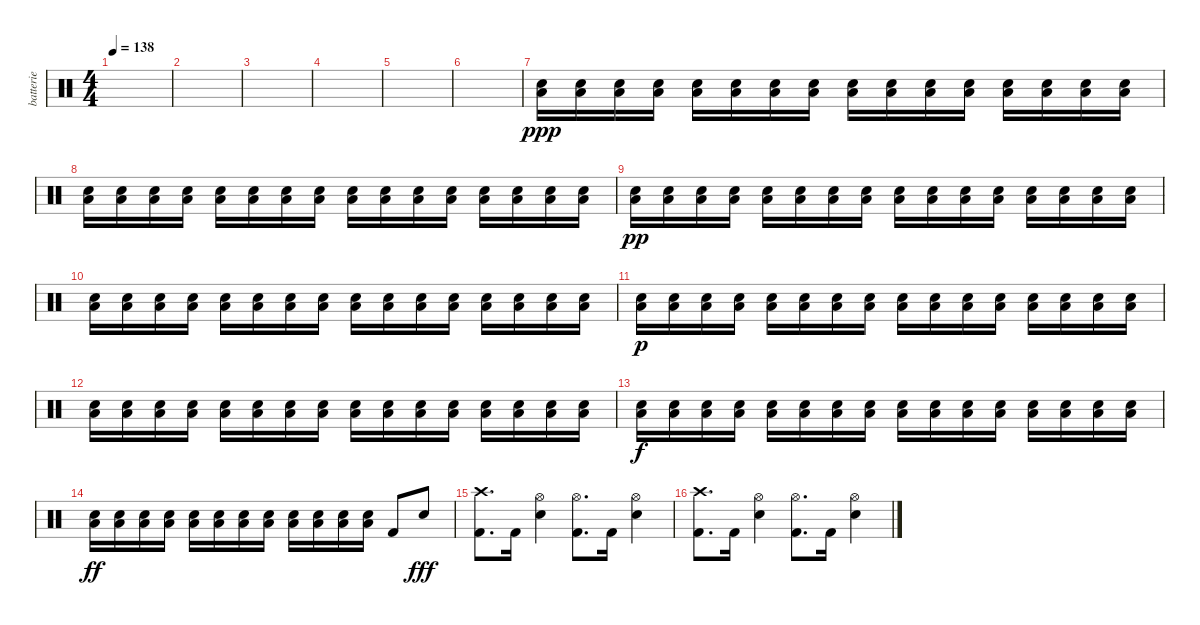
\track ("batterie" "batterie") {instrument percussion}
\staff {score}
\articulation defaults
\ts (4 4)
\tempo 138
\clef neutral
\ks c
|
|
|
|
|
|
("Low Floor Tom (hit)" "Electric Snare (hit)").16{dy ppp} ("Low Floor Tom (hit)" "Electric Snare (hit)").16 ("Low Floor Tom (hit)" "Electric Snare (hit)").16 ("Low Floor Tom (hit)" "Electric Snare (hit)").16 ("Low Floor Tom (hit)" "Electric Snare (hit)").16 ("Low Floor Tom (hit)" "Electric Snare (hit)").16 ("Low Floor Tom (hit)" "Electric Snare (hit)").16 ("Low Floor Tom (hit)" "Electric Snare (hit)").16 ("Low Floor Tom (hit)" "Electric Snare (hit)").16 ("Low Floor Tom (hit)" "Electric Snare (hit)").16 ("Low Floor Tom (hit)" "Electric Snare (hit)").16 ("Low Floor Tom (hit)" "Electric Snare (hit)").16 ("Low Floor Tom (hit)" "Electric Snare (hit)").16 ("Low Floor Tom (hit)" "Electric Snare (hit)").16 ("Low Floor Tom (hit)" "Electric Snare (hit)").16 ("Low Floor Tom (hit)" "Electric Snare (hit)").16 |
("Low Floor Tom (hit)" "Electric Snare (hit)").16 ("Low Floor Tom (hit)" "Electric Snare (hit)").16 ("Low Floor Tom (hit)" "Electric Snare (hit)").16 ("Low Floor Tom (hit)" "Electric Snare (hit)").16 ("Low Floor Tom (hit)" "Electric Snare (hit)").16 ("Low Floor Tom (hit)" "Electric Snare (hit)").16 ("Low Floor Tom (hit)" "Electric Snare (hit)").16 ("Low Floor Tom (hit)" "Electric Snare (hit)").16 ("Low Floor Tom (hit)" "Electric Snare (hit)").16 ("Low Floor Tom (hit)" "Electric Snare (hit)").16 ("Low Floor Tom (hit)" "Electric Snare (hit)").16 ("Low Floor Tom (hit)" "Electric Snare (hit)").16 ("Low Floor Tom (hit)" "Electric Snare (hit)").16 ("Low Floor Tom (hit)" "Electric Snare (hit)").16 ("Low Floor Tom (hit)" "Electric Snare (hit)").16 ("Low Floor Tom (hit)" "Electric Snare (hit)").16 |
("Low Floor Tom (hit)" "Electric Snare (hit)").16{dy pp} ("Low Floor Tom (hit)" "Electric Snare (hit)").16 ("Low Floor Tom (hit)" "Electric Snare (hit)").16 ("Low Floor Tom (hit)" "Electric Snare (hit)").16 ("Low Floor Tom (hit)" "Electric Snare (hit)").16 ("Low Floor Tom (hit)" "Electric Snare (hit)").16 ("Low Floor Tom (hit)" "Electric Snare (hit)").16 ("Low Floor Tom (hit)" "Electric Snare (hit)").16 ("Low Floor Tom (hit)" "Electric Snare (hit)").16 ("Low Floor Tom (hit)" "Electric Snare (hit)").16 ("Low Floor Tom (hit)" "Electric Snare (hit)").16 ("Low Floor Tom (hit)" "Electric Snare (hit)").16 ("Low Floor Tom (hit)" "Electric Snare (hit)").16 ("Low Floor Tom (hit)" "Electric Snare (hit)").16 ("Low Floor Tom (hit)" "Electric Snare (hit)").16 ("Low Floor Tom (hit)" "Electric Snare (hit)").16 |
("Low Floor Tom (hit)" "Electric Snare (hit)").16 ("Low Floor Tom (hit)" "Electric Snare (hit)").16 ("Low Floor Tom (hit)" "Electric Snare (hit)").16 ("Low Floor Tom (hit)" "Electric Snare (hit)").16 ("Low Floor Tom (hit)" "Electric Snare (hit)").16 ("Low Floor Tom (hit)" "Electric Snare (hit)").16 ("Low Floor Tom (hit)" "Electric Snare (hit)").16 ("Low Floor Tom (hit)" "Electric Snare (hit)").16 ("Low Floor Tom (hit)" "Electric Snare (hit)").16 ("Low Floor Tom (hit)" "Electric Snare (hit)").16 ("Low Floor Tom (hit)" "Electric Snare (hit)").16 ("Low Floor Tom (hit)" "Electric Snare (hit)").16 ("Low Floor Tom (hit)" "Electric Snare (hit)").16 ("Low Floor Tom (hit)" "Electric Snare (hit)").16 ("Low Floor Tom (hit)" "Electric Snare (hit)").16 ("Low Floor Tom (hit)" "Electric Snare (hit)").16 |
("Low Floor Tom (hit)" "Electric Snare (hit)").16{dy p} ("Low Floor Tom (hit)" "Electric Snare (hit)").16 ("Low Floor Tom (hit)" "Electric Snare (hit)").16 ("Low Floor Tom (hit)" "Electric Snare (hit)").16 ("Low Floor Tom (hit)" "Electric Snare (hit)").16 ("Low Floor Tom (hit)" "Electric Snare (hit)").16 ("Low Floor Tom (hit)" "Electric Snare (hit)").16 ("Low Floor Tom (hit)" "Electric Snare (hit)").16 ("Low Floor Tom (hit)" "Electric Snare (hit)").16 ("Low Floor Tom (hit)" "Electric Snare (hit)").16 ("Low Floor Tom (hit)" "Electric Snare (hit)").16 ("Low Floor Tom (hit)" "Electric Snare (hit)").16 ("Low Floor Tom (hit)" "Electric Snare (hit)").16 ("Low Floor Tom (hit)" "Electric Snare (hit)").16 ("Low Floor Tom (hit)" "Electric Snare (hit)").16 ("Low Floor Tom (hit)" "Electric Snare (hit)").16 |
("Low Floor Tom (hit)" "Electric Snare (hit)").16 ("Low Floor Tom (hit)" "Electric Snare (hit)").16 ("Low Floor Tom (hit)" "Electric Snare (hit)").16 ("Low Floor Tom (hit)" "Electric Snare (hit)").16 ("Low Floor Tom (hit)" "Electric Snare (hit)").16 ("Low Floor Tom (hit)" "Electric Snare (hit)").16 ("Low Floor Tom (hit)" "Electric Snare (hit)").16 ("Low Floor Tom (hit)" "Electric Snare (hit)").16 ("Low Floor Tom (hit)" "Electric Snare (hit)").16 ("Low Floor Tom (hit)" "Electric Snare (hit)").16 ("Low Floor Tom (hit)" "Electric Snare (hit)").16 ("Low Floor Tom (hit)" "Electric Snare (hit)").16 ("Low Floor Tom (hit)" "Electric Snare (hit)").16 ("Low Floor Tom (hit)" "Electric Snare (hit)").16 ("Low Floor Tom (hit)" "Electric Snare (hit)").16 ("Low Floor Tom (hit)" "Electric Snare (hit)").16 |
("Low Floor Tom (hit)" "Electric Snare (hit)").16{dy f} ("Low Floor Tom (hit)" "Electric Snare (hit)").16 ("Low Floor Tom (hit)" "Electric Snare (hit)").16 ("Low Floor Tom (hit)" "Electric Snare (hit)").16 ("Low Floor Tom (hit)" "Electric Snare (hit)").16 ("Low Floor Tom (hit)" "Electric Snare (hit)").16 ("Low Floor Tom (hit)" "Electric Snare (hit)").16 ("Low Floor Tom (hit)" "Electric Snare (hit)").16 ("Low Floor Tom (hit)" "Electric Snare (hit)").16 ("Low Floor Tom (hit)" "Electric Snare (hit)").16 ("Low Floor Tom (hit)" "Electric Snare (hit)").16 ("Low Floor Tom (hit)" "Electric Snare (hit)").16 ("Low Floor Tom (hit)" "Electric Snare (hit)").16 ("Low Floor Tom (hit)" "Electric Snare (hit)").16 ("Low Floor Tom (hit)" "Electric Snare (hit)").16 ("Low Floor Tom (hit)" "Electric Snare (hit)").16 |
("Low Floor Tom (hit)" "Electric Snare (hit)").16{dy ff} ("Low Floor Tom (hit)" "Electric Snare (hit)").16 ("Low Floor Tom (hit)" "Electric Snare (hit)").16 ("Low Floor Tom (hit)" "Electric Snare (hit)").16 ("Low Floor Tom (hit)" "Electric Snare (hit)").16 ("Low Floor Tom (hit)" "Electric Snare (hit)").16 ("Low Floor Tom (hit)" "Electric Snare (hit)").16 ("Low Floor Tom (hit)" "Electric Snare (hit)").16 ("Low Floor Tom (hit)" "Electric Snare (hit)").16 ("Low Floor Tom (hit)" "Electric Snare (hit)").16 ("Low Floor Tom (hit)" "Electric Snare (hit)").16 ("Low Floor Tom (hit)" "Electric Snare (hit)").16 "Kick (hit) 2".8 "Electric Snare (hit)".8{dy fff} |
("Crash high (hit)" "Kick (hit) 2").8{d} "Kick (hit) 2".16 ("Hi-Hat (open)" "Electric Snare (hit)").4 ("Hi-Hat (open)" "Kick (hit) 2").8{d} "Kick (hit) 2".16 ("Hi-Hat (open)" "Electric Snare (hit)").4 |
("Crash high (hit)" "Kick (hit) 2").8{d} "Kick (hit) 2".16 ("Hi-Hat (open)" "Electric Snare (hit)").4 ("Hi-Hat (open)" "Kick (hit) 2").8{d} "Kick (hit) 2".16 ("Hi-Hat (open)" "Electric Snare (hit)").4
